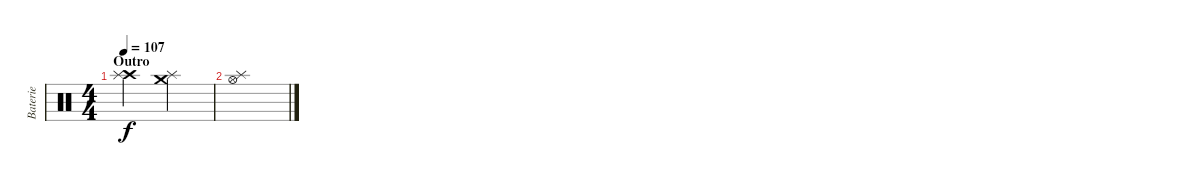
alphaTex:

\track ("Baterie" "Baterie") {instrument percussion}
\staff {score}
\articulation defaults
\ts (4 4)
\section ("" "Outro")
\tempo 107
\clef neutral
\ks c
("Crash high (hit)" "Splash (hit)").2{dy f} ("Crash medium (hit)" "Splash (hit)").2 |
("Hi-Hat (open)" "Splash (hit)").1
